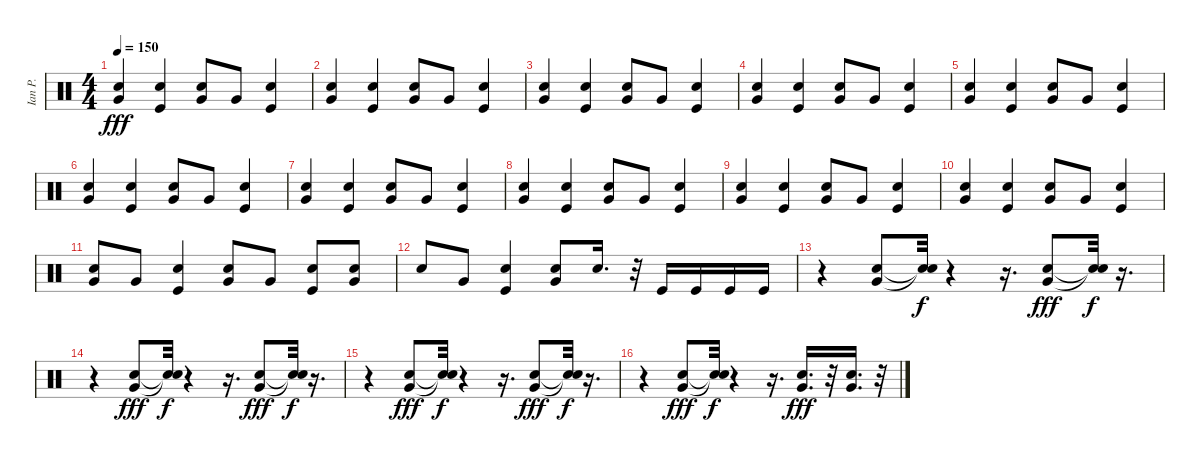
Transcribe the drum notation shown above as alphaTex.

\track ("Ian P." "Ian P.") {instrument percussion}
\staff {score}
\articulation defaults
\ts (4 4)
\tempo 150
\clef neutral
\ks c
("Very Low Tom (hit)" "Electric Snare (hit)").4{dy fff} ("Kick (hit)" "Electric Snare (hit)").4 ("Very Low Tom (hit)" "Electric Snare (hit)").8 "Very Low Tom (hit)".8 ("Kick (hit)" "Electric Snare (hit)").4 |
("Very Low Tom (hit)" "Electric Snare (hit)").4 ("Kick (hit)" "Electric Snare (hit)").4 ("Very Low Tom (hit)" "Electric Snare (hit)").8 "Very Low Tom (hit)".8 ("Kick (hit)" "Electric Snare (hit)").4 |
("Very Low Tom (hit)" "Electric Snare (hit)").4 ("Kick (hit)" "Electric Snare (hit)").4 ("Very Low Tom (hit)" "Electric Snare (hit)").8 "Very Low Tom (hit)".8 ("Kick (hit)" "Electric Snare (hit)").4 |
("Very Low Tom (hit)" "Electric Snare (hit)").4 ("Kick (hit)" "Electric Snare (hit)").4 ("Very Low Tom (hit)" "Electric Snare (hit)").8 "Very Low Tom (hit)".8 ("Kick (hit)" "Electric Snare (hit)").4 |
("Very Low Tom (hit)" "Electric Snare (hit)").4 ("Kick (hit)" "Electric Snare (hit)").4 ("Very Low Tom (hit)" "Electric Snare (hit)").8 "Very Low Tom (hit)".8 ("Kick (hit)" "Electric Snare (hit)").4 |
("Very Low Tom (hit)" "Electric Snare (hit)").4 ("Kick (hit)" "Electric Snare (hit)").4 ("Very Low Tom (hit)" "Electric Snare (hit)").8 "Very Low Tom (hit)".8 ("Kick (hit)" "Electric Snare (hit)").4 |
("Very Low Tom (hit)" "Electric Snare (hit)").4 ("Kick (hit)" "Electric Snare (hit)").4 ("Very Low Tom (hit)" "Electric Snare (hit)").8 "Very Low Tom (hit)".8 ("Kick (hit)" "Electric Snare (hit)").4 |
("Very Low Tom (hit)" "Electric Snare (hit)").4 ("Kick (hit)" "Electric Snare (hit)").4 ("Very Low Tom (hit)" "Electric Snare (hit)").8 "Very Low Tom (hit)".8 ("Kick (hit)" "Electric Snare (hit)").4 |
("Very Low Tom (hit)" "Electric Snare (hit)").4 ("Kick (hit)" "Electric Snare (hit)").4 ("Very Low Tom (hit)" "Electric Snare (hit)").8 "Very Low Tom (hit)".8 ("Kick (hit)" "Electric Snare (hit)").4 |
("Very Low Tom (hit)" "Electric Snare (hit)").4 ("Kick (hit)" "Electric Snare (hit)").4 ("Very Low Tom (hit)" "Electric Snare (hit)").8 "Very Low Tom (hit)".8 ("Kick (hit)" "Electric Snare (hit)").4 |
("Electric Snare (hit)" "Very Low Tom (hit)").8 "Very Low Tom (hit)".8 ("Electric Snare (hit)" "Kick (hit)").4 ("Electric Snare (hit)" "Very Low Tom (hit)").8 "Very Low Tom (hit)".8 ("Electric Snare (hit)" "Kick (hit)").8 ("Electric Snare (hit)" "Very Low Tom (hit)").8 |
"Electric Snare (hit)".8 "Very Low Tom (hit)".8 ("Electric Snare (hit)" "Kick (hit)").4 ("Electric Snare (hit)" "Very Low Tom (hit)").8 "Electric Snare (hit)".16{d} r.32 "Kick (hit)".16 "Kick (hit)".16 "Kick (hit)".16 "Kick (hit)".16 |
r.4 ("Electric Snare (hit)" "Very Low Tom (hit)").8 ("Snare (hit)"{t} "Snare (hit)"{t}).32{dy f} r.4 r.16{d} ("Electric Snare (hit)" "Very Low Tom (hit)").8{dy fff} ("Snare (hit)"{t} "Snare (hit)"{t}).32{dy f} r.16{d} |
r.4 ("Electric Snare (hit)" "Very Low Tom (hit)").8{dy fff} ("Snare (hit)"{t} "Snare (hit)"{t}).32{dy f} r.4 r.16{d} ("Electric Snare (hit)" "Very Low Tom (hit)").8{dy fff} ("Snare (hit)"{t} "Snare (hit)"{t}).32{dy f} r.16{d} |
r.4 ("Electric Snare (hit)" "Very Low Tom (hit)").8{dy fff} ("Snare (hit)"{t} "Snare (hit)"{t}).32{dy f} r.4 r.16{d} ("Electric Snare (hit)" "Very Low Tom (hit)").8{dy fff} ("Snare (hit)"{t} "Snare (hit)"{t}).32{dy f} r.16{d} |
r.4 ("Electric Snare (hit)" "Very Low Tom (hit)").8{dy fff} ("Snare (hit)"{t} "Snare (hit)"{t}).32{dy f} r.4 r.16{d} ("Electric Snare (hit)" "Very Low Tom (hit)").16{d dy fff} r.32 ("Electric Snare (hit)" "Very Low Tom (hit)").16{d} r.32
